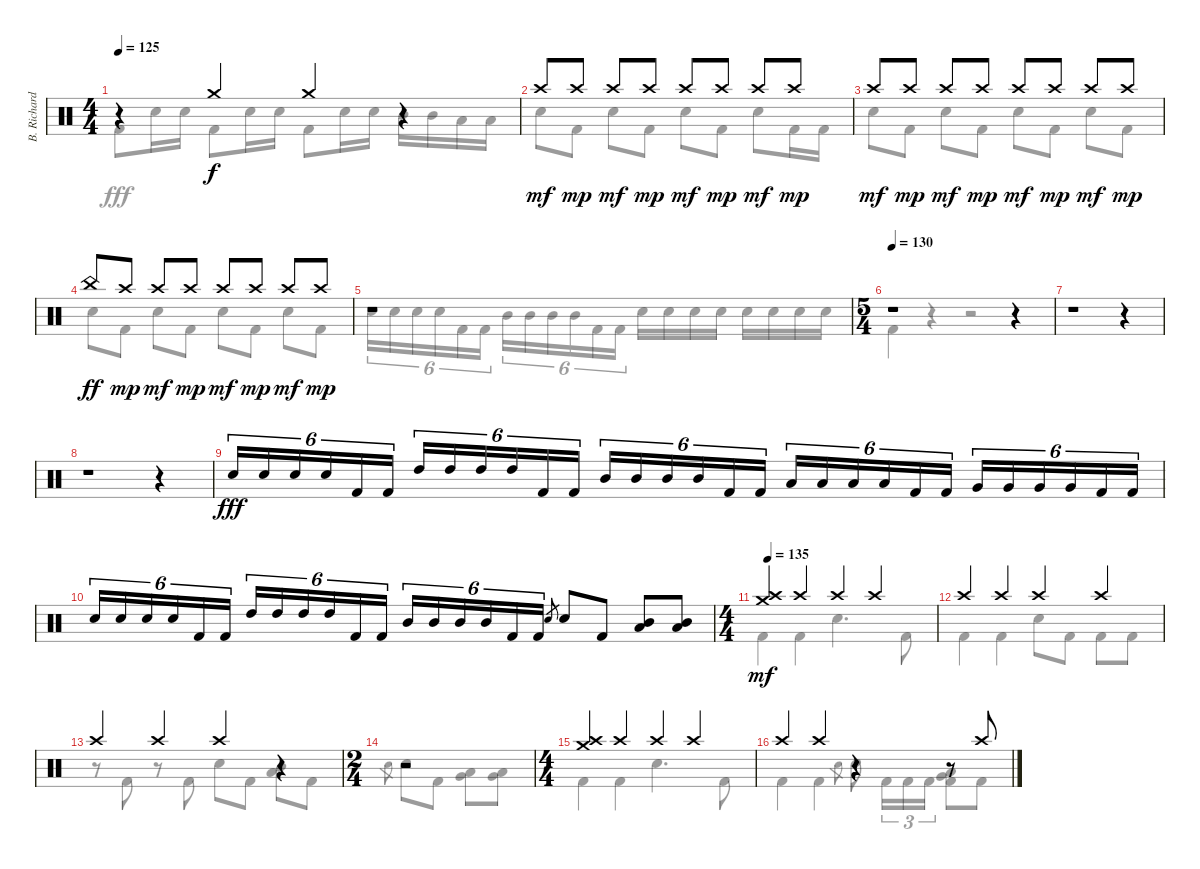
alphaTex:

\track ("B. Richardson Drums" "B. Richard") {instrument percussion}
\staff {score}
\articulation defaults
\voice
\ts (4 4)
\tempo 125
\clef neutral
\ks c
r.4{dy ff} "Crash medium (hit)".4{dy f} "Crash medium (hit)".4 r.4 |
"Crash high (hit)".8{dy mf} "Crash high (hit)".8{dy mp} "Crash high (hit)".8{dy mf} "Crash high (hit)".8{dy mp} "Crash high (hit)".8{dy mf} "Crash high (hit)".8{dy mp} "Crash high (hit)".8{dy mf} "Crash high (hit)".8{dy mp} |
"Crash high (hit)".8{dy mf} "Crash high (hit)".8{dy mp} "Crash high (hit)".8{dy mf} "Crash high (hit)".8{dy mp} "Crash high (hit)".8{dy mf} "Crash high (hit)".8{dy mp} "Crash high (hit)".8{dy mf} "Crash high (hit)".8{dy mp} |
"China (hit)".8{dy ff} "Crash high (hit)".8{dy mp} "Crash high (hit)".8{dy mf} "Crash high (hit)".8{dy mp} "Crash high (hit)".8{dy mf} "Crash high (hit)".8{dy mp} "Crash high (hit)".8{dy mf} "Crash high (hit)".8{dy mp} |
r.1 |
\ts (5 4)
\tempo 130
r.1 r.4 |
r.1 r.4 |
r.1 r.4 |
"Electric Snare (hit)".16{tu (6 4) dy fff} "Electric Snare (hit)".16{tu (6 4)} "Electric Snare (hit)".16{tu (6 4)} "Electric Snare (hit)".16{tu (6 4)} "Kick (hit) 2".16{tu (6 4)} "Kick (hit) 2".16{tu (6 4)} "High Tom (hit)".16{tu (6 4)} "High Tom (hit)".16{tu (6 4)} "High Tom (hit)".16{tu (6 4)} "High Tom (hit)".16{tu (6 4)} "Kick (hit) 2".16{tu (6 4)} "Kick (hit) 2".16{tu (6 4)} "Mid Tom (hit)".16{tu (6 4)} "Mid Tom (hit)".16{tu (6 4)} "Mid Tom (hit)".16{tu (6 4)} "Mid Tom (hit)".16{tu (6 4)} "Kick (hit) 2".16{tu (6 4)} "Kick (hit) 2".16{tu (6 4)} "Low Tom (hit)".16{tu (6 4)} "Low Tom (hit)".16{tu (6 4)} "Low Tom (hit)".16{tu (6 4)} "Low Tom (hit)".16{tu (6 4)} "Kick (hit) 2".16{tu (6 4)} "Kick (hit) 2".16{tu (6 4)} "Very Low Tom (hit)".16{tu (6 4)} "Very Low Tom (hit)".16{tu (6 4)} "Very Low Tom (hit)".16{tu (6 4)} "Very Low Tom (hit)".16{tu (6 4)} "Kick (hit) 2".16{tu (6 4)} "Kick (hit) 2".16{tu (6 4)} |
"Electric Snare (hit)".16{tu (6 4)} "Electric Snare (hit)".16{tu (6 4)} "Electric Snare (hit)".16{tu (6 4)} "Electric Snare (hit)".16{tu (6 4)} "Kick (hit) 2".16{tu (6 4)} "Kick (hit) 2".16{tu (6 4)} "High Tom (hit)".16{tu (6 4)} "High Tom (hit)".16{tu (6 4)} "High Tom (hit)".16{tu (6 4)} "High Tom (hit)".16{tu (6 4)} "Kick (hit) 2".16{tu (6 4)} "Kick (hit) 2".16{tu (6 4)} "Mid Tom (hit)".16{tu (6 4)} "Mid Tom (hit)".16{tu (6 4)} "Mid Tom (hit)".16{tu (6 4)} "Mid Tom (hit)".16{tu (6 4)} "Kick (hit) 2".16{tu (6 4)} "Kick (hit) 2".16{tu (6 4)} "Electric Snare (hit)".8{gr} "Electric Snare (hit)".8 "Kick (hit) 2".8 ("Mid Tom (hit)" "Low Tom (hit)").8 ("Mid Tom (hit)" "Low Tom (hit)").8 |
\ts (4 4)
\tempo 135
("Crash high (hit)" "Crash medium (hit)").4{dy mf} "Crash high (hit)".4 "Crash high (hit)".4 "Crash high (hit)".4 |
"Crash high (hit)".4 "Crash high (hit)".4 "Crash high (hit)".4 "Crash high (hit)".4 |
"Crash high (hit)".4 "Crash high (hit)".4 "Crash high (hit)".4 r.4 |
\ts (2 4)
r.2 |
\ts (4 4)
("Crash high (hit)" "Crash medium (hit)").4 "Crash high (hit)".4 "Crash high (hit)".4 "Crash high (hit)".4 |
"Crash high (hit)".4 "Crash high (hit)".4 r.4 r.8 "Crash high (hit)".8
\voice
\clef neutral
\ottava regular
\simile none
\ks c "Kick (hit) 2".8{dy fff} "Electric Snare (hit)".16 "Electric Snare (hit)".16 "Kick (hit) 2".8 "Electric Snare (hit)".16 "Electric Snare (hit)".16 "Kick (hit) 2".8 "Electric Snare (hit)".16 "Electric Snare (hit)".16 "Mid Tom (hit)".16 "Mid Tom (hit)".16 "Low Tom (hit)".16 "Low Tom (hit)".16
|
"Electric Snare (hit)".8 "Kick (hit) 2".8 "Electric Snare (hit)".8 "Kick (hit) 2".8 "Electric Snare (hit)".8 "Kick (hit) 2".8 "Electric Snare (hit)".8 "Kick (hit) 2".16 "Kick (hit) 2".16 |
"Electric Snare (hit)".8 "Kick (hit) 2".8 "Electric Snare (hit)".8 "Kick (hit) 2".8 "Electric Snare (hit)".8 "Kick (hit) 2".8 "Electric Snare (hit)".8 "Kick (hit) 2".8 |
"Electric Snare (hit)".8 "Kick (hit) 2".8 "Electric Snare (hit)".8 "Kick (hit) 2".8 "Electric Snare (hit)".8 "Kick (hit) 2".8 "Electric Snare (hit)".8 "Kick (hit) 2".8 |
"Electric Snare (hit)".16{tu (6 4)} "Electric Snare (hit)".16{tu (6 4)} "Electric Snare (hit)".16{tu (6 4)} "Electric Snare (hit)".16{tu (6 4)} "Kick (hit) 2".16{tu (6 4)} "Kick (hit) 2".16{tu (6 4)} "Mid Tom (hit)".16{tu (6 4)} "Mid Tom (hit)".16{tu (6 4)} "Mid Tom (hit)".16{tu (6 4)} "Mid Tom (hit)".16{tu (6 4)} "Kick (hit) 2".16{tu (6 4)} "Kick (hit) 2".16{tu (6 4)} "Electric Snare (hit)".16 "Electric Snare (hit)".16 "Electric Snare (hit)".16 "Electric Snare (hit)".16 "Electric Snare (hit)".16 "Electric Snare (hit)".16 "Electric Snare (hit)".16 "Electric Snare (hit)".16 |
"Kick (hit) 2".4 r.4 r.2 r.4 |
r.1 r.4 |
r.1 r.4 |
|
|
"Kick (hit) 2".4 "Kick (hit) 2".4 "Electric Snare (hit)".4{d} "Kick (hit) 2".8 |
"Kick (hit) 2".4 "Kick (hit) 2".4 "Electric Snare (hit)".8 "Kick (hit) 2".8 "Kick (hit) 2".8 "Kick (hit) 2".8 |
r.8 "Kick (hit) 2".8 r.8 "Kick (hit) 2".8 "Electric Snare (hit)".8 "Kick (hit) 2".8 ("Mid Tom (hit)" "Low Tom (hit)").8 "Kick (hit) 2".8 |
"Electric Snare (hit)".8{gr} "Electric Snare (hit)".8 "Kick (hit) 2".8 ("Low Tom (hit)" "Very Low Tom (hit)").8 ("Low Tom (hit)" "Very Low Tom (hit)").8 |
"Kick (hit) 2".4 "Kick (hit) 2".4 "Electric Snare (hit)".4{d} "Kick (hit) 2".8 |
"Kick (hit) 2".4 "Kick (hit) 2".4 "Electric Snare (hit)".8{gr} "Electric Snare (hit)".8 "Kick (hit) 2".16{tu (3 2)} "Kick (hit) 2".16{tu (3 2)} "Kick (hit) 2".16{tu (3 2)} ("Low Tom (hit)" "Very Low Tom (hit)" "Kick (hit) 2").8 "Kick (hit) 2".8
